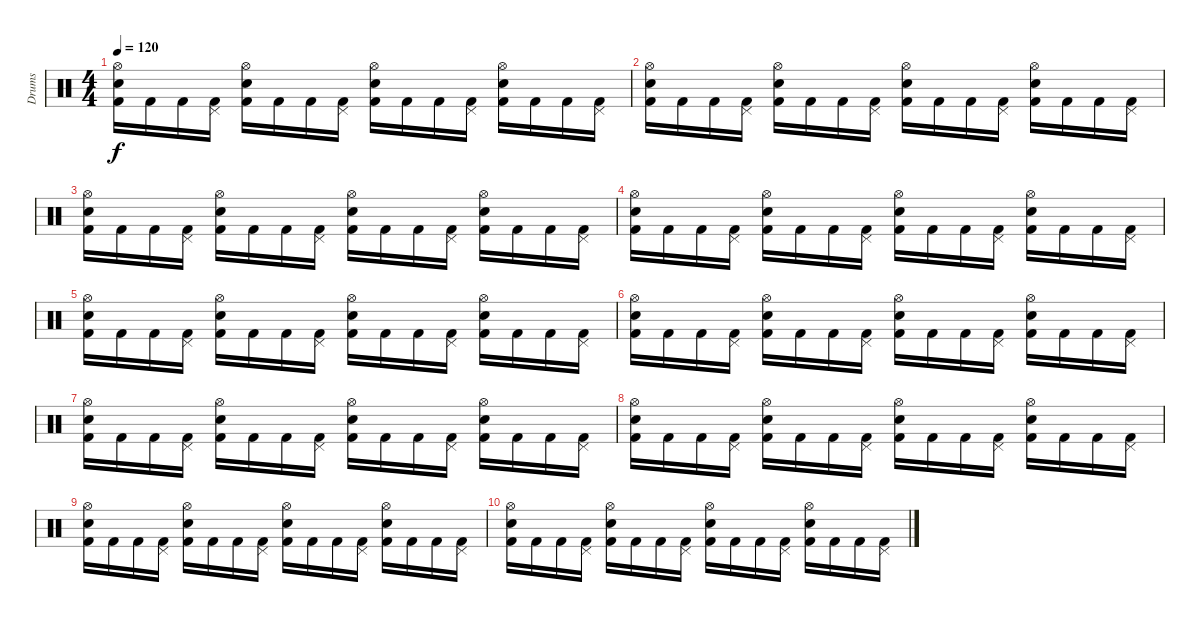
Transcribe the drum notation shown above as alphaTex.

\track ("Drums" "Drums") {instrument percussion}
\staff {score}
\articulation defaults
\ts (4 4)
\tempo 120
\clef neutral
\ks c
("Hi-Hat (open)" "Snare (hit) 2" "Kick (hit) 2").16{dy f} "Kick (hit) 2".16 "Kick (hit) 2".16 ("Pedal Hi-Hat (hit)" "Kick (hit) 2").16 ("Hi-Hat (open)" "Snare (hit) 2" "Kick (hit) 2").16 "Kick (hit) 2".16 "Kick (hit) 2".16 ("Pedal Hi-Hat (hit)" "Kick (hit) 2").16 ("Hi-Hat (open)" "Snare (hit) 2" "Kick (hit) 2").16 "Kick (hit) 2".16 "Kick (hit) 2".16 ("Pedal Hi-Hat (hit)" "Kick (hit) 2").16 ("Hi-Hat (open)" "Snare (hit) 2" "Kick (hit) 2").16 "Kick (hit) 2".16 "Kick (hit) 2".16 ("Pedal Hi-Hat (hit)" "Kick (hit) 2").16 |
("Hi-Hat (open)" "Snare (hit) 2" "Kick (hit) 2").16 "Kick (hit) 2".16 "Kick (hit) 2".16 ("Pedal Hi-Hat (hit)" "Kick (hit) 2").16 ("Hi-Hat (open)" "Snare (hit) 2" "Kick (hit) 2").16 "Kick (hit) 2".16 "Kick (hit) 2".16 ("Pedal Hi-Hat (hit)" "Kick (hit) 2").16 ("Hi-Hat (open)" "Snare (hit) 2" "Kick (hit) 2").16 "Kick (hit) 2".16 "Kick (hit) 2".16 ("Pedal Hi-Hat (hit)" "Kick (hit) 2").16 ("Hi-Hat (open)" "Snare (hit) 2" "Kick (hit) 2").16 "Kick (hit) 2".16 "Kick (hit) 2".16 ("Pedal Hi-Hat (hit)" "Kick (hit) 2").16 |
("Hi-Hat (open)" "Snare (hit) 2" "Kick (hit) 2").16{volume 5} "Kick (hit) 2".16 "Kick (hit) 2".16 ("Pedal Hi-Hat (hit)" "Kick (hit) 2").16 ("Hi-Hat (open)" "Snare (hit) 2" "Kick (hit) 2").16 "Kick (hit) 2".16 "Kick (hit) 2".16 ("Pedal Hi-Hat (hit)" "Kick (hit) 2").16 ("Hi-Hat (open)" "Snare (hit) 2" "Kick (hit) 2").16 "Kick (hit) 2".16 "Kick (hit) 2".16 ("Pedal Hi-Hat (hit)" "Kick (hit) 2").16 ("Hi-Hat (open)" "Snare (hit) 2" "Kick (hit) 2").16 "Kick (hit) 2".16 "Kick (hit) 2".16 ("Pedal Hi-Hat (hit)" "Kick (hit) 2").16 |
("Hi-Hat (open)" "Snare (hit) 2" "Kick (hit) 2").16 "Kick (hit) 2".16 "Kick (hit) 2".16 ("Pedal Hi-Hat (hit)" "Kick (hit) 2").16 ("Hi-Hat (open)" "Snare (hit) 2" "Kick (hit) 2").16 "Kick (hit) 2".16 "Kick (hit) 2".16 ("Pedal Hi-Hat (hit)" "Kick (hit) 2").16 ("Hi-Hat (open)" "Snare (hit) 2" "Kick (hit) 2").16 "Kick (hit) 2".16 "Kick (hit) 2".16 ("Pedal Hi-Hat (hit)" "Kick (hit) 2").16 ("Hi-Hat (open)" "Snare (hit) 2" "Kick (hit) 2").16 "Kick (hit) 2".16 "Kick (hit) 2".16 ("Pedal Hi-Hat (hit)" "Kick (hit) 2").16 |
("Hi-Hat (open)" "Snare (hit) 2" "Kick (hit) 2").16 "Kick (hit) 2".16 "Kick (hit) 2".16 ("Pedal Hi-Hat (hit)" "Kick (hit) 2").16 ("Hi-Hat (open)" "Snare (hit) 2" "Kick (hit) 2").16 "Kick (hit) 2".16 "Kick (hit) 2".16 ("Pedal Hi-Hat (hit)" "Kick (hit) 2").16 ("Hi-Hat (open)" "Snare (hit) 2" "Kick (hit) 2").16 "Kick (hit) 2".16 "Kick (hit) 2".16 ("Pedal Hi-Hat (hit)" "Kick (hit) 2").16 ("Hi-Hat (open)" "Snare (hit) 2" "Kick (hit) 2").16 "Kick (hit) 2".16 "Kick (hit) 2".16 ("Pedal Hi-Hat (hit)" "Kick (hit) 2").16 |
("Hi-Hat (open)" "Snare (hit) 2" "Kick (hit) 2").16 "Kick (hit) 2".16 "Kick (hit) 2".16 ("Pedal Hi-Hat (hit)" "Kick (hit) 2").16 ("Hi-Hat (open)" "Snare (hit) 2" "Kick (hit) 2").16 "Kick (hit) 2".16 "Kick (hit) 2".16 ("Pedal Hi-Hat (hit)" "Kick (hit) 2").16 ("Hi-Hat (open)" "Snare (hit) 2" "Kick (hit) 2").16 "Kick (hit) 2".16 "Kick (hit) 2".16 ("Pedal Hi-Hat (hit)" "Kick (hit) 2").16 ("Hi-Hat (open)" "Snare (hit) 2" "Kick (hit) 2").16 "Kick (hit) 2".16 "Kick (hit) 2".16 ("Pedal Hi-Hat (hit)" "Kick (hit) 2").16 |
("Hi-Hat (open)" "Snare (hit) 2" "Kick (hit) 2").16{volume 3} "Kick (hit) 2".16 "Kick (hit) 2".16 ("Pedal Hi-Hat (hit)" "Kick (hit) 2").16 ("Hi-Hat (open)" "Snare (hit) 2" "Kick (hit) 2").16 "Kick (hit) 2".16 "Kick (hit) 2".16 ("Pedal Hi-Hat (hit)" "Kick (hit) 2").16 ("Hi-Hat (open)" "Snare (hit) 2" "Kick (hit) 2").16 "Kick (hit) 2".16 "Kick (hit) 2".16 ("Pedal Hi-Hat (hit)" "Kick (hit) 2").16 ("Hi-Hat (open)" "Snare (hit) 2" "Kick (hit) 2").16 "Kick (hit) 2".16 "Kick (hit) 2".16 ("Pedal Hi-Hat (hit)" "Kick (hit) 2").16 |
("Hi-Hat (open)" "Snare (hit) 2" "Kick (hit) 2").16 "Kick (hit) 2".16 "Kick (hit) 2".16 ("Pedal Hi-Hat (hit)" "Kick (hit) 2").16 ("Hi-Hat (open)" "Snare (hit) 2" "Kick (hit) 2").16 "Kick (hit) 2".16 "Kick (hit) 2".16 ("Pedal Hi-Hat (hit)" "Kick (hit) 2").16 ("Hi-Hat (open)" "Snare (hit) 2" "Kick (hit) 2").16 "Kick (hit) 2".16 "Kick (hit) 2".16 ("Pedal Hi-Hat (hit)" "Kick (hit) 2").16 ("Hi-Hat (open)" "Snare (hit) 2" "Kick (hit) 2").16 "Kick (hit) 2".16 "Kick (hit) 2".16 ("Pedal Hi-Hat (hit)" "Kick (hit) 2").16 |
("Hi-Hat (open)" "Snare (hit) 2" "Kick (hit) 2").16 "Kick (hit) 2".16 "Kick (hit) 2".16 ("Pedal Hi-Hat (hit)" "Kick (hit) 2").16 ("Hi-Hat (open)" "Snare (hit) 2" "Kick (hit) 2").16 "Kick (hit) 2".16 "Kick (hit) 2".16 ("Pedal Hi-Hat (hit)" "Kick (hit) 2").16 ("Hi-Hat (open)" "Snare (hit) 2" "Kick (hit) 2").16 "Kick (hit) 2".16 "Kick (hit) 2".16 ("Pedal Hi-Hat (hit)" "Kick (hit) 2").16 ("Hi-Hat (open)" "Snare (hit) 2" "Kick (hit) 2").16 "Kick (hit) 2".16 "Kick (hit) 2".16 ("Pedal Hi-Hat (hit)" "Kick (hit) 2").16 |
("Hi-Hat (open)" "Snare (hit) 2" "Kick (hit) 2").16 "Kick (hit) 2".16 "Kick (hit) 2".16 ("Pedal Hi-Hat (hit)" "Kick (hit) 2").16 ("Hi-Hat (open)" "Snare (hit) 2" "Kick (hit) 2").16 "Kick (hit) 2".16 "Kick (hit) 2".16 ("Pedal Hi-Hat (hit)" "Kick (hit) 2").16 ("Hi-Hat (open)" "Snare (hit) 2" "Kick (hit) 2").16 "Kick (hit) 2".16 "Kick (hit) 2".16 ("Pedal Hi-Hat (hit)" "Kick (hit) 2").16 ("Hi-Hat (open)" "Snare (hit) 2" "Kick (hit) 2").16 "Kick (hit) 2".16 "Kick (hit) 2".16 ("Pedal Hi-Hat (hit)" "Kick (hit) 2").16
